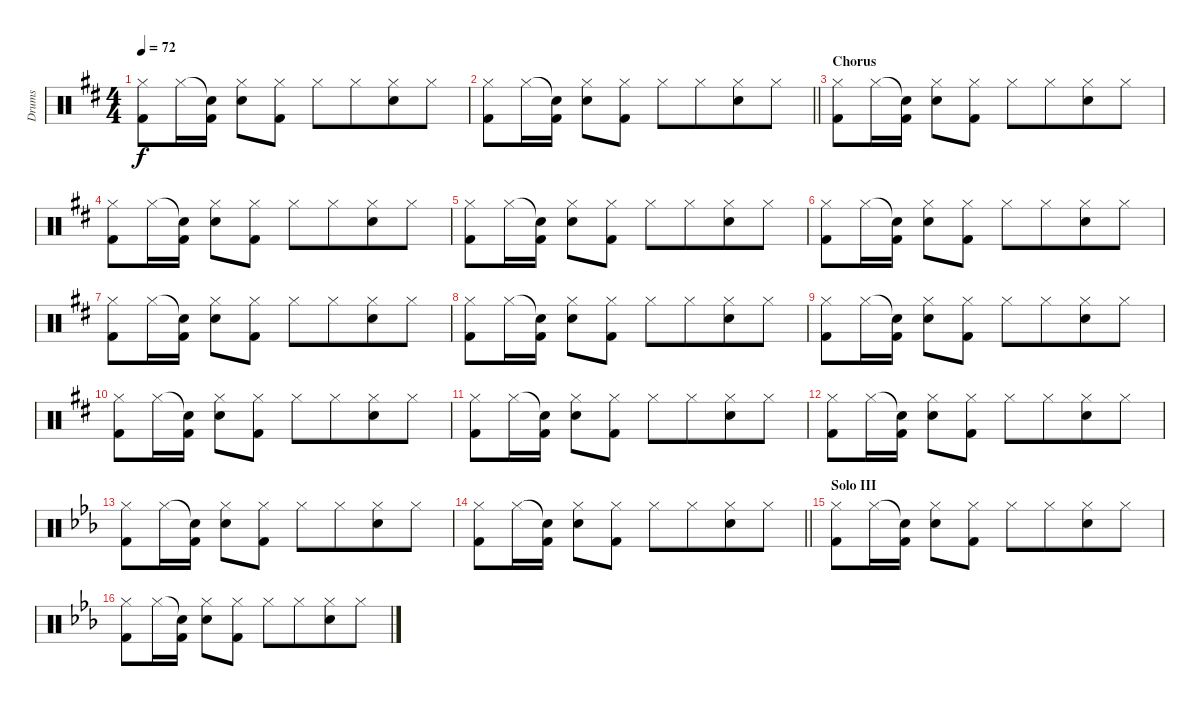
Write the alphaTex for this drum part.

\track ("Drums" "Drums") {instrument percussion}
\staff {score}
\articulation defaults
\ts (4 4)
\tempo 72
\clef neutral
\ks d
("Hi-Hat (closed)" "Kick (hit) 2").8{dy f} "Hi-Hat (closed)".16 ("Snare (hit)"{t} "Kick (hit) 2").16 ("Hi-Hat (closed)" "Snare (hit) 2").8 ("Hi-Hat (closed)" "Kick (hit) 2").8 "Hi-Hat (closed)".8 "Hi-Hat (closed)".8{beam merge} ("Hi-Hat (closed)" "Snare (hit) 2").8 "Hi-Hat (closed)".8 |
\barLineRight lightlight
("Hi-Hat (closed)" "Kick (hit) 2").8 "Hi-Hat (closed)".16 ("Snare (hit)"{t} "Kick (hit) 2").16 ("Hi-Hat (closed)" "Snare (hit) 2").8 ("Hi-Hat (closed)" "Kick (hit) 2").8 "Hi-Hat (closed)".8 "Hi-Hat (closed)".8{beam merge} ("Hi-Hat (closed)" "Snare (hit) 2").8 "Hi-Hat (closed)".8 |
\section ("" "Chorus")
("Hi-Hat (closed)" "Kick (hit) 2").8 "Hi-Hat (closed)".16 ("Snare (hit)"{t} "Kick (hit) 2").16 ("Hi-Hat (closed)" "Snare (hit) 2").8 ("Hi-Hat (closed)" "Kick (hit) 2").8 "Hi-Hat (closed)".8 "Hi-Hat (closed)".8{beam merge} ("Hi-Hat (closed)" "Snare (hit) 2").8 "Hi-Hat (closed)".8 |
("Hi-Hat (closed)" "Kick (hit) 2").8 "Hi-Hat (closed)".16 ("Snare (hit)"{t} "Kick (hit) 2").16 ("Hi-Hat (closed)" "Snare (hit) 2").8 ("Hi-Hat (closed)" "Kick (hit) 2").8 "Hi-Hat (closed)".8 "Hi-Hat (closed)".8{beam merge} ("Hi-Hat (closed)" "Snare (hit) 2").8 "Hi-Hat (closed)".8 |
("Hi-Hat (closed)" "Kick (hit) 2").8 "Hi-Hat (closed)".16 ("Snare (hit)"{t} "Kick (hit) 2").16 ("Hi-Hat (closed)" "Snare (hit) 2").8 ("Hi-Hat (closed)" "Kick (hit) 2").8 "Hi-Hat (closed)".8 "Hi-Hat (closed)".8{beam merge} ("Hi-Hat (closed)" "Snare (hit) 2").8 "Hi-Hat (closed)".8 |
("Hi-Hat (closed)" "Kick (hit) 2").8 "Hi-Hat (closed)".16 ("Snare (hit)"{t} "Kick (hit) 2").16 ("Hi-Hat (closed)" "Snare (hit) 2").8 ("Hi-Hat (closed)" "Kick (hit) 2").8 "Hi-Hat (closed)".8 "Hi-Hat (closed)".8{beam merge} ("Hi-Hat (closed)" "Snare (hit) 2").8 "Hi-Hat (closed)".8 |
("Hi-Hat (closed)" "Kick (hit) 2").8 "Hi-Hat (closed)".16 ("Snare (hit)"{t} "Kick (hit) 2").16 ("Hi-Hat (closed)" "Snare (hit) 2").8 ("Hi-Hat (closed)" "Kick (hit) 2").8 "Hi-Hat (closed)".8 "Hi-Hat (closed)".8{beam merge} ("Hi-Hat (closed)" "Snare (hit) 2").8 "Hi-Hat (closed)".8 |
("Hi-Hat (closed)" "Kick (hit) 2").8 "Hi-Hat (closed)".16 ("Snare (hit)"{t} "Kick (hit) 2").16 ("Hi-Hat (closed)" "Snare (hit) 2").8 ("Hi-Hat (closed)" "Kick (hit) 2").8 "Hi-Hat (closed)".8 "Hi-Hat (closed)".8{beam merge} ("Hi-Hat (closed)" "Snare (hit) 2").8 "Hi-Hat (closed)".8 |
("Hi-Hat (closed)" "Kick (hit) 2").8 "Hi-Hat (closed)".16 ("Snare (hit)"{t} "Kick (hit) 2").16 ("Hi-Hat (closed)" "Snare (hit) 2").8 ("Hi-Hat (closed)" "Kick (hit) 2").8 "Hi-Hat (closed)".8 "Hi-Hat (closed)".8{beam merge} ("Hi-Hat (closed)" "Snare (hit) 2").8 "Hi-Hat (closed)".8 |
("Hi-Hat (closed)" "Kick (hit) 2").8 "Hi-Hat (closed)".16 ("Snare (hit)"{t} "Kick (hit) 2").16 ("Hi-Hat (closed)" "Snare (hit) 2").8 ("Hi-Hat (closed)" "Kick (hit) 2").8 "Hi-Hat (closed)".8 "Hi-Hat (closed)".8{beam merge} ("Hi-Hat (closed)" "Snare (hit) 2").8 "Hi-Hat (closed)".8 |
("Hi-Hat (closed)" "Kick (hit) 2").8 "Hi-Hat (closed)".16 ("Snare (hit)"{t} "Kick (hit) 2").16 ("Hi-Hat (closed)" "Snare (hit) 2").8 ("Hi-Hat (closed)" "Kick (hit) 2").8 "Hi-Hat (closed)".8 "Hi-Hat (closed)".8{beam merge} ("Hi-Hat (closed)" "Snare (hit) 2").8 "Hi-Hat (closed)".8 |
("Hi-Hat (closed)" "Kick (hit) 2").8 "Hi-Hat (closed)".16 ("Snare (hit)"{t} "Kick (hit) 2").16 ("Hi-Hat (closed)" "Snare (hit) 2").8 ("Hi-Hat (closed)" "Kick (hit) 2").8 "Hi-Hat (closed)".8 "Hi-Hat (closed)".8{beam merge} ("Hi-Hat (closed)" "Snare (hit) 2").8 "Hi-Hat (closed)".8 |
\ks eb
("Hi-Hat (closed)" "Kick (hit) 2").8 "Hi-Hat (closed)".16 ("Snare (hit)"{t} "Kick (hit) 2").16 ("Hi-Hat (closed)" "Snare (hit) 2").8 ("Hi-Hat (closed)" "Kick (hit) 2").8 "Hi-Hat (closed)".8 "Hi-Hat (closed)".8{beam merge} ("Hi-Hat (closed)" "Snare (hit) 2").8 "Hi-Hat (closed)".8 |
\barLineRight lightlight
("Hi-Hat (closed)" "Kick (hit) 2").8 "Hi-Hat (closed)".16 ("Snare (hit)"{t} "Kick (hit) 2").16 ("Hi-Hat (closed)" "Snare (hit) 2").8 ("Hi-Hat (closed)" "Kick (hit) 2").8 "Hi-Hat (closed)".8 "Hi-Hat (closed)".8{beam merge} ("Hi-Hat (closed)" "Snare (hit) 2").8 "Hi-Hat (closed)".8 |
\section ("" "Solo III")
("Hi-Hat (closed)" "Kick (hit) 2").8 "Hi-Hat (closed)".16 ("Snare (hit)"{t} "Kick (hit) 2").16 ("Hi-Hat (closed)" "Snare (hit) 2").8 ("Hi-Hat (closed)" "Kick (hit) 2").8 "Hi-Hat (closed)".8 "Hi-Hat (closed)".8{beam merge} ("Hi-Hat (closed)" "Snare (hit) 2").8 "Hi-Hat (closed)".8 |
("Hi-Hat (closed)" "Kick (hit) 2").8 "Hi-Hat (closed)".16 ("Snare (hit)"{t} "Kick (hit) 2").16 ("Hi-Hat (closed)" "Snare (hit) 2").8 ("Hi-Hat (closed)" "Kick (hit) 2").8 "Hi-Hat (closed)".8 "Hi-Hat (closed)".8{beam merge} ("Hi-Hat (closed)" "Snare (hit) 2").8 "Hi-Hat (closed)".8
